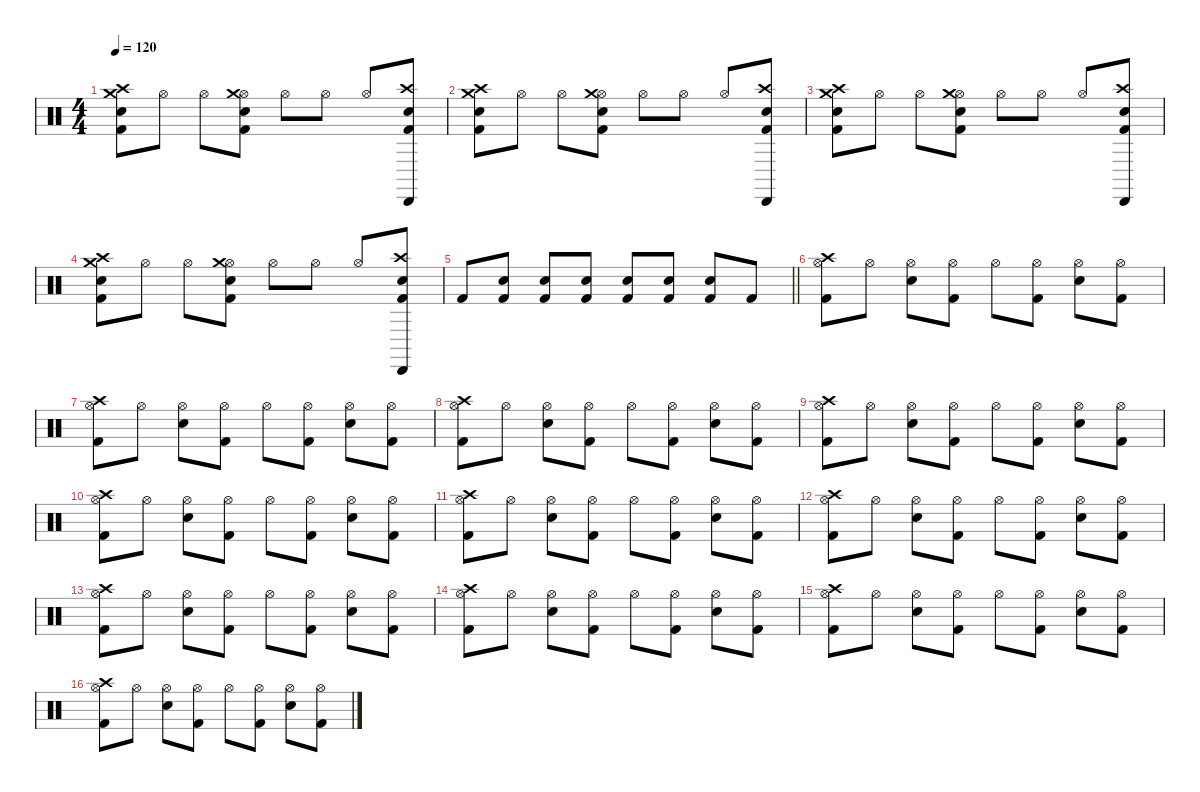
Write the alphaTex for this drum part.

\defaultSystemsLayout 4
\hideDynamics
\bracketExtendMode nobrackets
\singleTrackTrackNamePolicy hidden
\multiTrackTrackNamePolicy hidden
\otherSystemsTrackNameOrientation horizontal
\track ("Percussion" "drm.") {instrument percussion}
\staff {score}
\articulation defaults
\ts (4 4)
\tempo 120
\clef neutral
\ks c
("Kick (hit) 2" "Crash high (hit)" "Crash medium (hit)" "Snare (hit) 2").8{dy f beam Down} "Hi-Hat (open)".8{beam Down} "Hi-Hat (open)".8{beam Down} ("Kick (hit) 2" "Hi-Hat (open)" "Crash medium (hit)" "Snare (hit) 2").8{beam Down} "Hi-Hat (open)".8{beam Down} "Hi-Hat (open)".8{beam Down} "Hi-Hat (open)".8{beam Up} ("Kick (hit) 2" "Crash high (hit)" "Cabasa (hit)" "Snare (hit) 2").8{beam Up} |
("Kick (hit) 2" "Crash high (hit)" "Crash medium (hit)" "Snare (hit) 2").8{beam Down} "Hi-Hat (open)".8{beam Down} "Hi-Hat (open)".8{beam Down} ("Kick (hit) 2" "Hi-Hat (open)" "Crash medium (hit)" "Snare (hit) 2").8{beam Down} "Hi-Hat (open)".8{beam Down} "Hi-Hat (open)".8{beam Down} "Hi-Hat (open)".8{beam Up} ("Kick (hit) 2" "Crash high (hit)" "Cabasa (hit)" "Snare (hit) 2").8{beam Up} |
("Kick (hit) 2" "Crash high (hit)" "Crash medium (hit)" "Snare (hit) 2").8{beam Down} "Hi-Hat (open)".8{beam Down} "Hi-Hat (open)".8{beam Down} ("Kick (hit) 2" "Hi-Hat (open)" "Crash medium (hit)" "Snare (hit) 2").8{beam Down} "Hi-Hat (open)".8{beam Down} "Hi-Hat (open)".8{beam Down} "Hi-Hat (open)".8{beam Up} ("Kick (hit) 2" "Crash high (hit)" "Cabasa (hit)" "Snare (hit) 2").8{beam Up} |
("Kick (hit) 2" "Crash high (hit)" "Crash medium (hit)" "Snare (hit) 2").8{beam Down} "Hi-Hat (open)".8{beam Down} "Hi-Hat (open)".8{beam Down} ("Kick (hit) 2" "Hi-Hat (open)" "Crash medium (hit)" "Snare (hit) 2").8{beam Down} "Hi-Hat (open)".8{beam Down} "Hi-Hat (open)".8{beam Down} "Hi-Hat (open)".8{beam Up} ("Kick (hit) 2" "Crash high (hit)" "Cabasa (hit)" "Snare (hit) 2").8{beam Up} |
\barLineRight lightlight "Kick (hit) 2".8{beam Up}
("Snare (hit) 2" "Kick (hit) 2").8{beam Up} ("Snare (hit) 2" "Kick (hit) 2").8{beam Up} ("Kick (hit) 2" "Snare (hit) 2").8{beam Up} ("Snare (hit) 2" "Kick (hit) 2").8{beam Up} ("Snare (hit) 2" "Kick (hit) 2").8{beam Up} ("Kick (hit) 2" "Snare (hit) 2").8{beam Up} "Kick (hit) 2".8{beam Up} |
("Kick (hit) 2" "Hi-Hat (open)" "Crash high (hit)").8{beam Down} "Hi-Hat (open)".8{beam Down} ("Snare (hit) 2" "Hi-Hat (open)").8{beam Down} ("Kick (hit) 2" "Hi-Hat (open)").8{beam Down} "Hi-Hat (open)".8{beam Down} ("Kick (hit) 2" "Hi-Hat (open)").8{beam Down} ("Snare (hit) 2" "Hi-Hat (open)").8{beam Down} ("Kick (hit) 2" "Hi-Hat (open)").8{beam Down} |
("Kick (hit) 2" "Hi-Hat (open)" "Crash high (hit)").8{beam Down} "Hi-Hat (open)".8{beam Down} ("Snare (hit) 2" "Hi-Hat (open)").8{beam Down} ("Kick (hit) 2" "Hi-Hat (open)").8{beam Down} "Hi-Hat (open)".8{beam Down} ("Kick (hit) 2" "Hi-Hat (open)").8{beam Down} ("Snare (hit) 2" "Hi-Hat (open)").8{beam Down} ("Kick (hit) 2" "Hi-Hat (open)").8{beam Down} |
("Kick (hit) 2" "Hi-Hat (open)" "Crash high (hit)").8{beam Down} "Hi-Hat (open)".8{beam Down} ("Snare (hit) 2" "Hi-Hat (open)").8{beam Down} ("Kick (hit) 2" "Hi-Hat (open)").8{beam Down} "Hi-Hat (open)".8{beam Down} ("Kick (hit) 2" "Hi-Hat (open)").8{beam Down} ("Snare (hit) 2" "Hi-Hat (open)").8{beam Down} ("Kick (hit) 2" "Hi-Hat (open)").8{beam Down} |
("Kick (hit) 2" "Hi-Hat (open)" "Crash high (hit)").8{beam Down} "Hi-Hat (open)".8{beam Down} ("Snare (hit) 2" "Hi-Hat (open)").8{beam Down} ("Kick (hit) 2" "Hi-Hat (open)").8{beam Down} "Hi-Hat (open)".8{beam Down} ("Kick (hit) 2" "Hi-Hat (open)").8{beam Down} ("Snare (hit) 2" "Hi-Hat (open)").8{beam Down} ("Kick (hit) 2" "Hi-Hat (open)").8{beam Down} |
("Kick (hit) 2" "Hi-Hat (open)" "Crash high (hit)").8{beam Down} "Hi-Hat (open)".8{beam Down} ("Snare (hit) 2" "Hi-Hat (open)").8{beam Down} ("Kick (hit) 2" "Hi-Hat (open)").8{beam Down} "Hi-Hat (open)".8{beam Down} ("Kick (hit) 2" "Hi-Hat (open)").8{beam Down} ("Snare (hit) 2" "Hi-Hat (open)").8{beam Down} ("Kick (hit) 2" "Hi-Hat (open)").8{beam Down} |
("Kick (hit) 2" "Hi-Hat (open)" "Crash high (hit)").8{beam Down} "Hi-Hat (open)".8{beam Down} ("Snare (hit) 2" "Hi-Hat (open)").8{beam Down} ("Kick (hit) 2" "Hi-Hat (open)").8{beam Down} "Hi-Hat (open)".8{beam Down} ("Kick (hit) 2" "Hi-Hat (open)").8{beam Down} ("Snare (hit) 2" "Hi-Hat (open)").8{beam Down} ("Kick (hit) 2" "Hi-Hat (open)").8{beam Down} |
("Kick (hit) 2" "Hi-Hat (open)" "Crash high (hit)").8{beam Down} "Hi-Hat (open)".8{beam Down} ("Snare (hit) 2" "Hi-Hat (open)").8{beam Down} ("Kick (hit) 2" "Hi-Hat (open)").8{beam Down} "Hi-Hat (open)".8{beam Down} ("Kick (hit) 2" "Hi-Hat (open)").8{beam Down} ("Snare (hit) 2" "Hi-Hat (open)").8{beam Down} ("Kick (hit) 2" "Hi-Hat (open)").8{beam Down} |
("Kick (hit) 2" "Hi-Hat (open)" "Crash high (hit)").8{beam Down} "Hi-Hat (open)".8{beam Down} ("Snare (hit) 2" "Hi-Hat (open)").8{beam Down} ("Kick (hit) 2" "Hi-Hat (open)").8{beam Down} "Hi-Hat (open)".8{beam Down} ("Kick (hit) 2" "Hi-Hat (open)").8{beam Down} ("Snare (hit) 2" "Hi-Hat (open)").8{beam Down} ("Kick (hit) 2" "Hi-Hat (open)").8{beam Down} |
("Kick (hit) 2" "Hi-Hat (open)" "Crash high (hit)").8{beam Down} "Hi-Hat (open)".8{beam Down} ("Snare (hit) 2" "Hi-Hat (open)").8{beam Down} ("Kick (hit) 2" "Hi-Hat (open)").8{beam Down} "Hi-Hat (open)".8{beam Down} ("Kick (hit) 2" "Hi-Hat (open)").8{beam Down} ("Snare (hit) 2" "Hi-Hat (open)").8{beam Down} ("Kick (hit) 2" "Hi-Hat (open)").8{beam Down} |
("Kick (hit) 2" "Hi-Hat (open)" "Crash high (hit)").8{beam Down} "Hi-Hat (open)".8{beam Down} ("Snare (hit) 2" "Hi-Hat (open)").8{beam Down} ("Kick (hit) 2" "Hi-Hat (open)").8{beam Down} "Hi-Hat (open)".8{beam Down} ("Kick (hit) 2" "Hi-Hat (open)").8{beam Down} ("Snare (hit) 2" "Hi-Hat (open)").8{beam Down} ("Kick (hit) 2" "Hi-Hat (open)").8{beam Down} |
("Kick (hit) 2" "Hi-Hat (open)" "Crash high (hit)").8{beam Down} "Hi-Hat (open)".8{beam Down} ("Snare (hit) 2" "Hi-Hat (open)").8{beam Down} ("Kick (hit) 2" "Hi-Hat (open)").8{beam Down} "Hi-Hat (open)".8{beam Down} ("Kick (hit) 2" "Hi-Hat (open)").8{beam Down} ("Snare (hit) 2" "Hi-Hat (open)").8{beam Down} ("Kick (hit) 2" "Hi-Hat (open)").8{beam Down}
